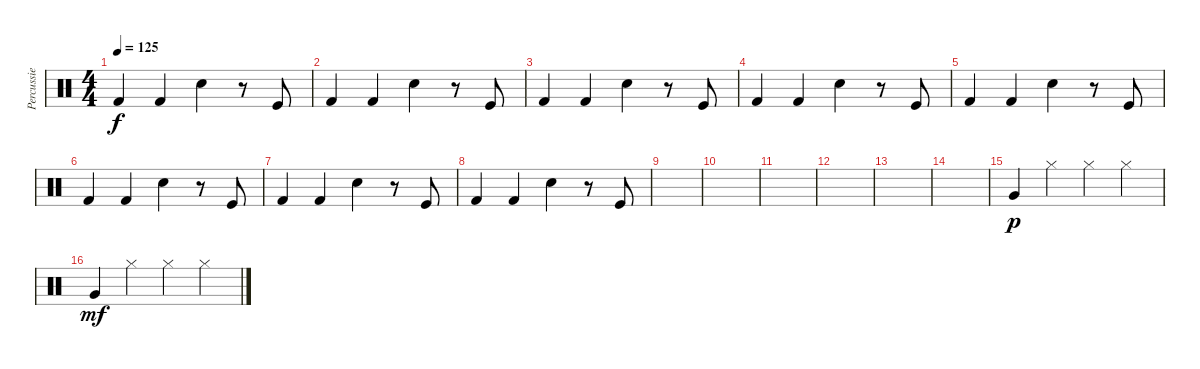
\track ("Percussie" "Percussie") {instrument percussion}
\staff {score}
\articulation defaults
\ts (4 4)
\tempo 125
\clef neutral
\ks c "Kick (hit) 2".4{dy f} "Kick (hit) 2".4 "Electric Snare (hit)".4
r.8 "Kick (hit)".8 |
"Kick (hit) 2".4 "Kick (hit) 2".4 "Electric Snare (hit)".4 r.8 "Kick (hit)".8 |
"Kick (hit) 2".4 "Kick (hit) 2".4 "Electric Snare (hit)".4 r.8 "Kick (hit)".8 |
"Kick (hit) 2".4 "Kick (hit) 2".4 "Electric Snare (hit)".4 r.8 "Kick (hit)".8 |
"Kick (hit) 2".4 "Kick (hit) 2".4 "Electric Snare (hit)".4 r.8 "Kick (hit)".8 |
"Kick (hit) 2".4 "Kick (hit) 2".4 "Electric Snare (hit)".4 r.8 "Kick (hit)".8 |
"Kick (hit) 2".4 "Kick (hit) 2".4 "Electric Snare (hit)".4 r.8 "Kick (hit)".8 |
"Kick (hit) 2".4 "Kick (hit) 2".4 "Electric Snare (hit)".4 r.8 "Kick (hit)".8 |
|
|
|
|
|
|
"Very Low Tom (hit)".4{dy p} "Hi-Hat (closed)".4 "Hi-Hat (closed)".4 "Hi-Hat (closed)".4 |
"Very Low Tom (hit)".4{dy mf} "Hi-Hat (closed)".4 "Hi-Hat (closed)".4 "Hi-Hat (closed)".4
